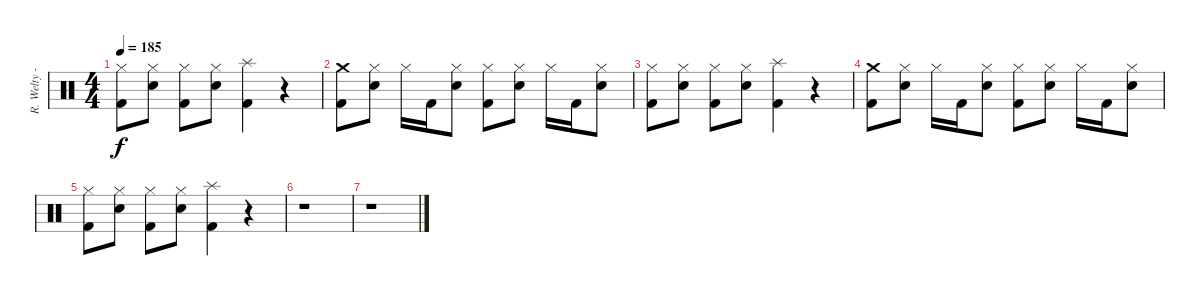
\track ("R. Welty - Drums" "R. Welty -") {instrument percussion}
\staff {score}
\articulation defaults
\ts (4 4)
\tempo 185
\clef neutral
\ks c
("Hi-Hat (closed)" "Kick (hit) 2").8{dy f} ("Hi-Hat (closed)" "Electric Snare (hit)").8 ("Hi-Hat (closed)" "Kick (hit) 2").8 ("Hi-Hat (closed)" "Electric Snare (hit)").8 ("Splash (hit)" "Kick (hit) 2").4 r.4 |
("Crash medium (hit)" "Kick (hit) 2").8 ("Hi-Hat (closed)" "Electric Snare (hit)").8 "Hi-Hat (closed)".16 "Kick (hit) 2".16 ("Hi-Hat (closed)" "Electric Snare (hit)").8 ("Hi-Hat (closed)" "Kick (hit) 2").8 ("Hi-Hat (closed)" "Electric Snare (hit)").8 "Hi-Hat (closed)".16 "Kick (hit) 2".16 ("Hi-Hat (closed)" "Electric Snare (hit)").8 |
("Hi-Hat (closed)" "Kick (hit) 2").8 ("Hi-Hat (closed)" "Electric Snare (hit)").8 ("Hi-Hat (closed)" "Kick (hit) 2").8 ("Hi-Hat (closed)" "Electric Snare (hit)").8 ("Splash (hit)" "Kick (hit) 2").4 r.4 |
("Crash medium (hit)" "Kick (hit) 2").8 ("Hi-Hat (closed)" "Electric Snare (hit)").8 "Hi-Hat (closed)".16 "Kick (hit) 2".16 ("Hi-Hat (closed)" "Electric Snare (hit)").8 ("Hi-Hat (closed)" "Kick (hit) 2").8 ("Hi-Hat (closed)" "Electric Snare (hit)").8 "Hi-Hat (closed)".16 "Kick (hit) 2".16 ("Hi-Hat (closed)" "Electric Snare (hit)").8 |
("Hi-Hat (closed)" "Kick (hit) 2").8 ("Hi-Hat (closed)" "Electric Snare (hit)").8 ("Hi-Hat (closed)" "Kick (hit) 2").8 ("Hi-Hat (closed)" "Electric Snare (hit)").8 ("Splash (hit)" "Kick (hit) 2").4 r.4 |
r.1 |
r.1
